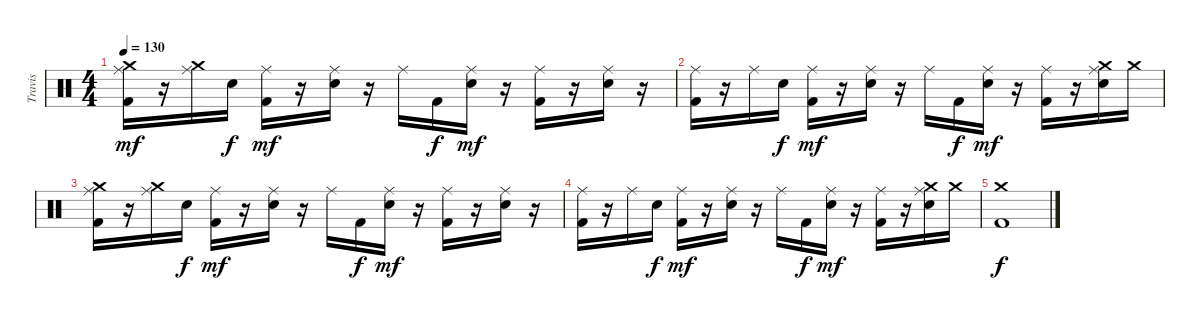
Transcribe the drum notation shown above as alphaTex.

\track ("Travis" "Travis") {instrument percussion}
\staff {score}
\articulation defaults
\ts (4 4)
\tempo 130
\clef neutral
\ks c
("Crash medium (hit)" "Ride (middle)" "Kick (hit) 2").16{dy mf} r.16 ("Crash medium (hit)" "Ride (middle)").16 "Electric Snare (hit)".16{dy f} ("Ride (middle)" "Kick (hit) 2").16{dy mf} r.16 ("Ride (middle)" "Electric Snare (hit)").16 r.16 "Ride (middle)".16 "Kick (hit) 2".16{dy f} ("Ride (middle)" "Electric Snare (hit)").16{dy mf} r.16 ("Ride (middle)" "Kick (hit) 2").16 r.16 ("Ride (middle)" "Electric Snare (hit)").16 r.16 |
("Ride (middle)" "Kick (hit) 2").16 r.16 "Ride (middle)".16 "Electric Snare (hit)".16{dy f} ("Ride (middle)" "Kick (hit) 2").16{dy mf} r.16 ("Ride (middle)" "Electric Snare (hit)").16 r.16 "Ride (middle)".16 "Kick (hit) 2".16{dy f} ("Ride (middle)" "Electric Snare (hit)").16{dy mf} r.16 ("Ride (middle)" "Kick (hit) 2").16 r.16 ("Crash medium (hit)" "Ride (middle)" "Electric Snare (hit)").16 "Crash medium (hit)".16 |
("Crash medium (hit)" "Ride (middle)" "Kick (hit) 2").16 r.16 ("Crash medium (hit)" "Ride (middle)").16 "Electric Snare (hit)".16{dy f} ("Ride (middle)" "Kick (hit) 2").16{dy mf} r.16 ("Ride (middle)" "Electric Snare (hit)").16 r.16 "Ride (middle)".16 "Kick (hit) 2".16{dy f} ("Ride (middle)" "Electric Snare (hit)").16{dy mf} r.16 ("Ride (middle)" "Kick (hit) 2").16 r.16 ("Ride (middle)" "Electric Snare (hit)").16 r.16 |
("Ride (middle)" "Kick (hit) 2").16 r.16 "Ride (middle)".16 "Electric Snare (hit)".16{dy f} ("Ride (middle)" "Kick (hit) 2").16{dy mf} r.16 ("Ride (middle)" "Electric Snare (hit)").16 r.16 "Ride (middle)".16 "Kick (hit) 2".16{dy f} ("Ride (middle)" "Electric Snare (hit)").16{dy mf} r.16 ("Ride (middle)" "Kick (hit) 2").16 r.16 ("Crash medium (hit)" "Ride (middle)" "Electric Snare (hit)").16 "Crash medium (hit)".16 |
("Crash medium (hit)" "Kick (hit) 2").1{dy f}
